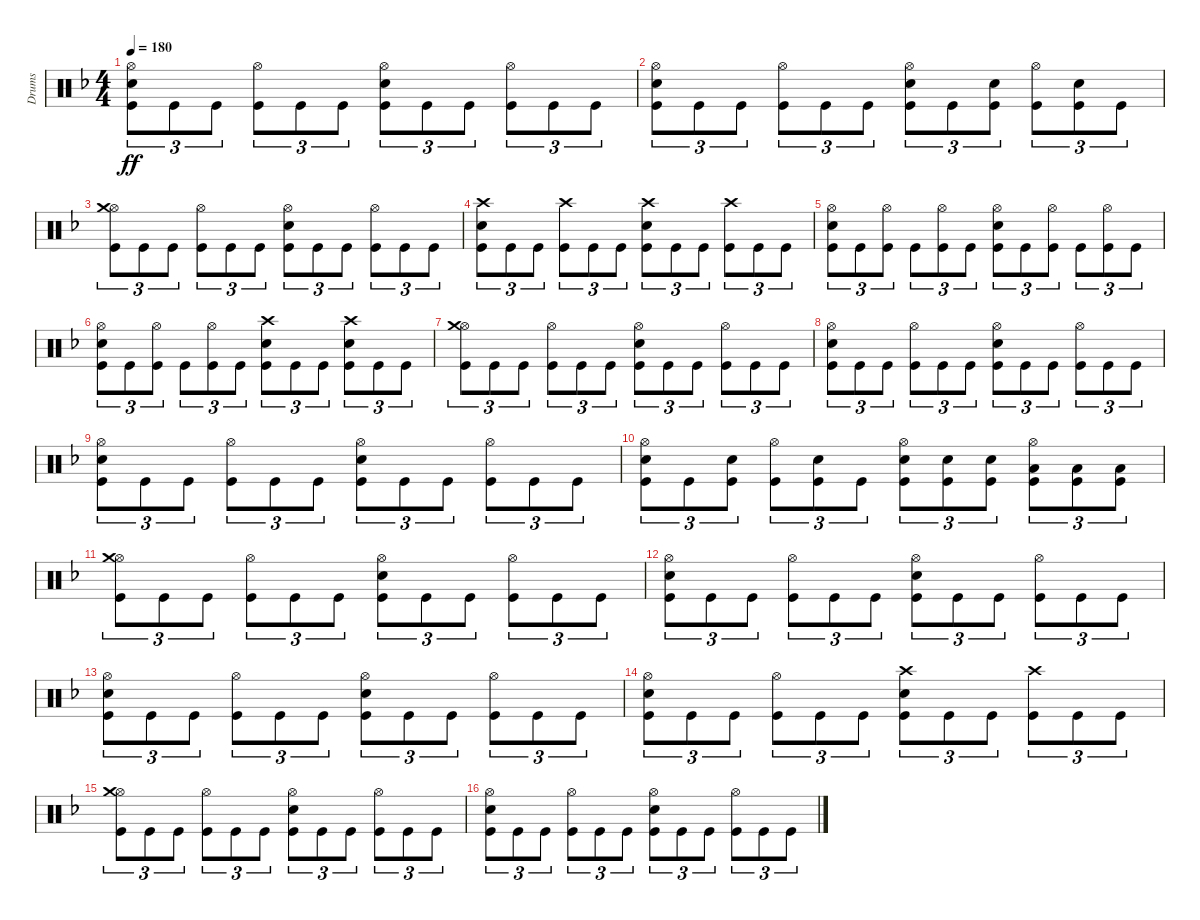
\track ("Drums" "Drums") {instrument percussion}
\staff {score}
\articulation defaults
\ts (4 4)
\tempo 180
\clef neutral
\ks dminor
("Hi-Hat (open)" "Snare (hit) 2" "Kick (hit)").8{tu (3 2) dy ff} "Kick (hit)".8{tu (3 2)} "Kick (hit)".8{tu (3 2)} ("Hi-Hat (open)" "Kick (hit)").8{tu (3 2)} "Kick (hit)".8{tu (3 2)} "Kick (hit)".8{tu (3 2)} ("Hi-Hat (open)" "Snare (hit) 2" "Kick (hit)").8{tu (3 2)} "Kick (hit)".8{tu (3 2)} "Kick (hit)".8{tu (3 2)} ("Hi-Hat (open)" "Kick (hit)").8{tu (3 2)} "Kick (hit)".8{tu (3 2)} "Kick (hit)".8{tu (3 2)} |
("Hi-Hat (open)" "Snare (hit) 2" "Kick (hit)").8{tu (3 2)} "Kick (hit)".8{tu (3 2)} "Kick (hit)".8{tu (3 2)} ("Hi-Hat (open)" "Kick (hit)").8{tu (3 2)} "Kick (hit)".8{tu (3 2)} "Kick (hit)".8{tu (3 2)} ("Hi-Hat (open)" "Snare (hit) 2" "Kick (hit)").8{tu (3 2)} "Kick (hit)".8{tu (3 2)} ("Snare (hit) 2" "Kick (hit)").8{tu (3 2)} ("Hi-Hat (open)" "Kick (hit)").8{tu (3 2)} ("Snare (hit) 2" "Kick (hit)").8{tu (3 2)} "Kick (hit)".8{tu (3 2)} |
("Hi-Hat (open)" "Crash medium (hit)" "Kick (hit)").8{tu (3 2)} "Kick (hit)".8{tu (3 2)} "Kick (hit)".8{tu (3 2)} ("Hi-Hat (open)" "Kick (hit)").8{tu (3 2)} "Kick (hit)".8{tu (3 2)} "Kick (hit)".8{tu (3 2)} ("Hi-Hat (open)" "Snare (hit) 2" "Kick (hit)").8{tu (3 2)} "Kick (hit)".8{tu (3 2)} "Kick (hit)".8{tu (3 2)} ("Hi-Hat (open)" "Kick (hit)").8{tu (3 2)} "Kick (hit)".8{tu (3 2)} "Kick (hit)".8{tu (3 2)} |
("Crash high (hit)" "Snare (hit) 2" "Kick (hit)").8{tu (3 2)} "Kick (hit)".8{tu (3 2)} "Kick (hit)".8{tu (3 2)} ("Crash high (hit)" "Kick (hit)").8{tu (3 2)} "Kick (hit)".8{tu (3 2)} "Kick (hit)".8{tu (3 2)} ("Crash high (hit)" "Snare (hit) 2" "Kick (hit)").8{tu (3 2)} "Kick (hit)".8{tu (3 2)} "Kick (hit)".8{tu (3 2)} ("Crash high (hit)" "Kick (hit)").8{tu (3 2)} "Kick (hit)".8{tu (3 2)} "Kick (hit)".8{tu (3 2)} |
("Hi-Hat (open)" "Snare (hit) 2" "Kick (hit)").8{tu (3 2)} "Kick (hit)".8{tu (3 2)} ("Hi-Hat (open)" "Kick (hit)").8{tu (3 2)} "Kick (hit)".8{tu (3 2)} ("Hi-Hat (open)" "Kick (hit)").8{tu (3 2)} "Kick (hit)".8{tu (3 2)} ("Hi-Hat (open)" "Snare (hit) 2" "Kick (hit)").8{tu (3 2)} "Kick (hit)".8{tu (3 2)} ("Hi-Hat (open)" "Kick (hit)").8{tu (3 2)} "Kick (hit)".8{tu (3 2)} ("Hi-Hat (open)" "Kick (hit)").8{tu (3 2)} "Kick (hit)".8{tu (3 2)} |
("Hi-Hat (open)" "Snare (hit) 2" "Kick (hit)").8{tu (3 2)} "Kick (hit)".8{tu (3 2)} ("Hi-Hat (open)" "Kick (hit)").8{tu (3 2)} "Kick (hit)".8{tu (3 2)} ("Hi-Hat (open)" "Kick (hit)").8{tu (3 2)} "Kick (hit)".8{tu (3 2)} ("Crash high (hit)" "Snare (hit) 2" "Kick (hit)").8{tu (3 2)} "Kick (hit)".8{tu (3 2)} "Kick (hit)".8{tu (3 2)} ("Crash high (hit)" "Snare (hit) 2" "Kick (hit)").8{tu (3 2)} "Kick (hit)".8{tu (3 2)} "Kick (hit)".8{tu (3 2)} |
("Hi-Hat (open)" "Crash medium (hit)" "Kick (hit)").8{tu (3 2)} "Kick (hit)".8{tu (3 2)} "Kick (hit)".8{tu (3 2)} ("Hi-Hat (open)" "Kick (hit)").8{tu (3 2)} "Kick (hit)".8{tu (3 2)} "Kick (hit)".8{tu (3 2)} ("Hi-Hat (open)" "Snare (hit) 2" "Kick (hit)").8{tu (3 2)} "Kick (hit)".8{tu (3 2)} "Kick (hit)".8{tu (3 2)} ("Hi-Hat (open)" "Kick (hit)").8{tu (3 2)} "Kick (hit)".8{tu (3 2)} "Kick (hit)".8{tu (3 2)} |
("Hi-Hat (open)" "Snare (hit) 2" "Kick (hit)").8{tu (3 2)} "Kick (hit)".8{tu (3 2)} "Kick (hit)".8{tu (3 2)} ("Hi-Hat (open)" "Kick (hit)").8{tu (3 2)} "Kick (hit)".8{tu (3 2)} "Kick (hit)".8{tu (3 2)} ("Hi-Hat (open)" "Snare (hit) 2" "Kick (hit)").8{tu (3 2)} "Kick (hit)".8{tu (3 2)} "Kick (hit)".8{tu (3 2)} ("Hi-Hat (open)" "Kick (hit)").8{tu (3 2)} "Kick (hit)".8{tu (3 2)} "Kick (hit)".8{tu (3 2)} |
("Hi-Hat (open)" "Snare (hit) 2" "Kick (hit)").8{tu (3 2)} "Kick (hit)".8{tu (3 2)} "Kick (hit)".8{tu (3 2)} ("Hi-Hat (open)" "Kick (hit)").8{tu (3 2)} "Kick (hit)".8{tu (3 2)} "Kick (hit)".8{tu (3 2)} ("Hi-Hat (open)" "Snare (hit) 2" "Kick (hit)").8{tu (3 2)} "Kick (hit)".8{tu (3 2)} "Kick (hit)".8{tu (3 2)} ("Hi-Hat (open)" "Kick (hit)").8{tu (3 2)} "Kick (hit)".8{tu (3 2)} "Kick (hit)".8{tu (3 2)} |
("Hi-Hat (open)" "Snare (hit) 2" "Kick (hit)").8{tu (3 2)} "Kick (hit)".8{tu (3 2)} ("Snare (hit) 2" "Kick (hit)").8{tu (3 2)} ("Hi-Hat (open)" "Kick (hit)").8{tu (3 2)} ("Snare (hit) 2" "Kick (hit)").8{tu (3 2)} "Kick (hit)".8{tu (3 2)} ("Hi-Hat (open)" "Snare (hit) 2" "Kick (hit)").8{tu (3 2)} ("Snare (hit) 2" "Kick (hit)").8{tu (3 2)} ("Snare (hit) 2" "Kick (hit)").8{tu (3 2)} ("Hi-Hat (open)" "Low Tom (hit)" "Kick (hit)").8{tu (3 2)} ("Low Tom (hit)" "Kick (hit)").8{tu (3 2)} ("Low Tom (hit)" "Kick (hit)").8{tu (3 2)} |
("Hi-Hat (open)" "Crash medium (hit)" "Kick (hit)").8{tu (3 2)} "Kick (hit)".8{tu (3 2)} "Kick (hit)".8{tu (3 2)} ("Hi-Hat (open)" "Kick (hit)").8{tu (3 2)} "Kick (hit)".8{tu (3 2)} "Kick (hit)".8{tu (3 2)} ("Hi-Hat (open)" "Snare (hit) 2" "Kick (hit)").8{tu (3 2)} "Kick (hit)".8{tu (3 2)} "Kick (hit)".8{tu (3 2)} ("Hi-Hat (open)" "Kick (hit)").8{tu (3 2)} "Kick (hit)".8{tu (3 2)} "Kick (hit)".8{tu (3 2)} |
("Hi-Hat (open)" "Snare (hit) 2" "Kick (hit)").8{tu (3 2)} "Kick (hit)".8{tu (3 2)} "Kick (hit)".8{tu (3 2)} ("Hi-Hat (open)" "Kick (hit)").8{tu (3 2)} "Kick (hit)".8{tu (3 2)} "Kick (hit)".8{tu (3 2)} ("Hi-Hat (open)" "Snare (hit) 2" "Kick (hit)").8{tu (3 2)} "Kick (hit)".8{tu (3 2)} "Kick (hit)".8{tu (3 2)} ("Hi-Hat (open)" "Kick (hit)").8{tu (3 2)} "Kick (hit)".8{tu (3 2)} "Kick (hit)".8{tu (3 2)} |
("Hi-Hat (open)" "Snare (hit) 2" "Kick (hit)").8{tu (3 2)} "Kick (hit)".8{tu (3 2)} "Kick (hit)".8{tu (3 2)} ("Hi-Hat (open)" "Kick (hit)").8{tu (3 2)} "Kick (hit)".8{tu (3 2)} "Kick (hit)".8{tu (3 2)} ("Hi-Hat (open)" "Snare (hit) 2" "Kick (hit)").8{tu (3 2)} "Kick (hit)".8{tu (3 2)} "Kick (hit)".8{tu (3 2)} ("Hi-Hat (open)" "Kick (hit)").8{tu (3 2)} "Kick (hit)".8{tu (3 2)} "Kick (hit)".8{tu (3 2)} |
("Hi-Hat (open)" "Snare (hit) 2" "Kick (hit)").8{tu (3 2)} "Kick (hit)".8{tu (3 2)} "Kick (hit)".8{tu (3 2)} ("Hi-Hat (open)" "Kick (hit)").8{tu (3 2)} "Kick (hit)".8{tu (3 2)} "Kick (hit)".8{tu (3 2)} ("Crash high (hit)" "Snare (hit) 2" "Kick (hit)").8{tu (3 2)} "Kick (hit)".8{tu (3 2)} "Kick (hit)".8{tu (3 2)} ("Crash high (hit)" "Kick (hit)").8{tu (3 2)} "Kick (hit)".8{tu (3 2)} "Kick (hit)".8{tu (3 2)} |
("Hi-Hat (open)" "Crash medium (hit)" "Kick (hit)").8{tu (3 2)} "Kick (hit)".8{tu (3 2)} "Kick (hit)".8{tu (3 2)} ("Hi-Hat (open)" "Kick (hit)").8{tu (3 2)} "Kick (hit)".8{tu (3 2)} "Kick (hit)".8{tu (3 2)} ("Hi-Hat (open)" "Snare (hit) 2" "Kick (hit)").8{tu (3 2)} "Kick (hit)".8{tu (3 2)} "Kick (hit)".8{tu (3 2)} ("Hi-Hat (open)" "Kick (hit)").8{tu (3 2)} "Kick (hit)".8{tu (3 2)} "Kick (hit)".8{tu (3 2)} |
("Hi-Hat (open)" "Snare (hit) 2" "Kick (hit)").8{tu (3 2)} "Kick (hit)".8{tu (3 2)} "Kick (hit)".8{tu (3 2)} ("Hi-Hat (open)" "Kick (hit)").8{tu (3 2)} "Kick (hit)".8{tu (3 2)} "Kick (hit)".8{tu (3 2)} ("Hi-Hat (open)" "Snare (hit) 2" "Kick (hit)").8{tu (3 2)} "Kick (hit)".8{tu (3 2)} "Kick (hit)".8{tu (3 2)} ("Hi-Hat (open)" "Kick (hit)").8{tu (3 2)} "Kick (hit)".8{tu (3 2)} "Kick (hit)".8{tu (3 2)}
